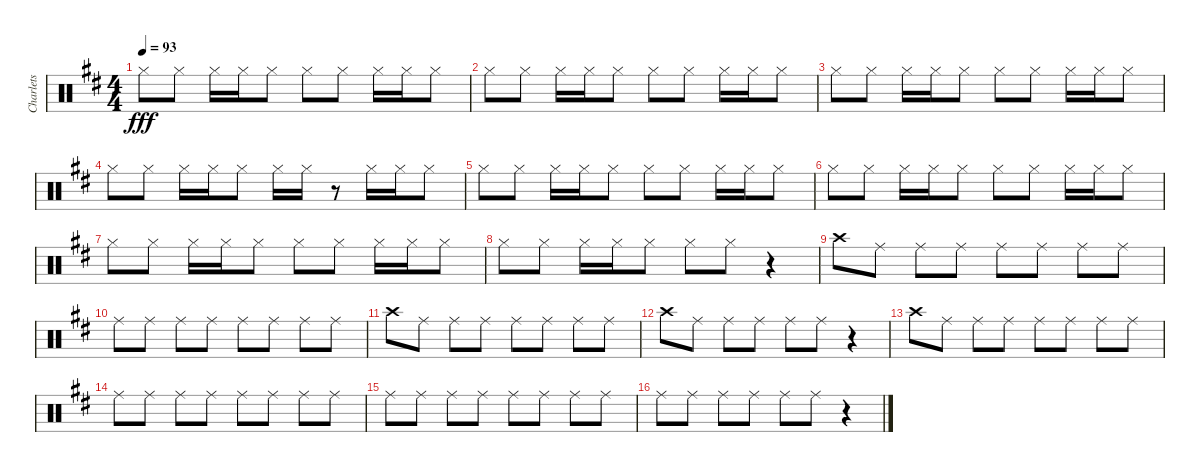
\track ("Charlets" "Charlets") {instrument percussion}
\staff {score}
\articulation defaults
\ts (4 4)
\tempo 93
\clef neutral
\ks d "Hi-Hat (closed)".8{dy fff} "Hi-Hat (closed)".8 "Hi-Hat (closed)".16 "Hi-Hat (closed)".16 "Hi-Hat (closed)".8 "Hi-Hat (closed)".8 "Hi-Hat (closed)".8 "Hi-Hat (closed)".16 "Hi-Hat (closed)".16 "Hi-Hat (closed)".8
|
"Hi-Hat (closed)".8 "Hi-Hat (closed)".8 "Hi-Hat (closed)".16 "Hi-Hat (closed)".16 "Hi-Hat (closed)".8 "Hi-Hat (closed)".8 "Hi-Hat (closed)".8 "Hi-Hat (closed)".16 "Hi-Hat (closed)".16 "Hi-Hat (closed)".8 |
"Hi-Hat (closed)".8 "Hi-Hat (closed)".8 "Hi-Hat (closed)".16 "Hi-Hat (closed)".16 "Hi-Hat (closed)".8 "Hi-Hat (closed)".8 "Hi-Hat (closed)".8 "Hi-Hat (closed)".16 "Hi-Hat (closed)".16 "Hi-Hat (closed)".8 |
"Hi-Hat (closed)".8 "Hi-Hat (closed)".8 "Hi-Hat (closed)".16 "Hi-Hat (closed)".16 "Hi-Hat (closed)".8 "Hi-Hat (closed)".16 "Hi-Hat (closed)".16 r.8 "Hi-Hat (closed)".16 "Hi-Hat (closed)".16 "Hi-Hat (closed)".8 |
"Hi-Hat (closed)".8 "Hi-Hat (closed)".8 "Hi-Hat (closed)".16 "Hi-Hat (closed)".16 "Hi-Hat (closed)".8 "Hi-Hat (closed)".8 "Hi-Hat (closed)".8 "Hi-Hat (closed)".16 "Hi-Hat (closed)".16 "Hi-Hat (closed)".8 |
"Hi-Hat (closed)".8 "Hi-Hat (closed)".8 "Hi-Hat (closed)".16 "Hi-Hat (closed)".16 "Hi-Hat (closed)".8 "Hi-Hat (closed)".8 "Hi-Hat (closed)".8 "Hi-Hat (closed)".16 "Hi-Hat (closed)".16 "Hi-Hat (closed)".8 |
"Hi-Hat (closed)".8 "Hi-Hat (closed)".8 "Hi-Hat (closed)".16 "Hi-Hat (closed)".16 "Hi-Hat (closed)".8 "Hi-Hat (closed)".8 "Hi-Hat (closed)".8 "Hi-Hat (closed)".16 "Hi-Hat (closed)".16 "Hi-Hat (closed)".8 |
"Hi-Hat (closed)".8 "Hi-Hat (closed)".8 "Hi-Hat (closed)".16 "Hi-Hat (closed)".16 "Hi-Hat (closed)".8 "Hi-Hat (closed)".8 "Hi-Hat (closed)".8 r.4 |
"Crash high (hit)".8 "Ride (middle)".8 "Ride (middle)".8 "Ride (middle)".8 "Ride (middle)".8 "Ride (middle)".8 "Ride (middle)".8 "Ride (middle)".8 |
"Ride (middle)".8 "Ride (middle)".8 "Ride (middle)".8 "Ride (middle)".8 "Ride (middle)".8 "Ride (middle)".8 "Ride (middle)".8 "Ride (middle)".8 |
"Crash high (hit)".8 "Ride (middle)".8 "Ride (middle)".8 "Ride (middle)".8 "Ride (middle)".8 "Ride (middle)".8 "Ride (middle)".8 "Ride (middle)".8 |
"Crash high (hit)".8 "Ride (middle)".8 "Ride (middle)".8 "Ride (middle)".8 "Ride (middle)".8 "Ride (middle)".8 r.4 |
"Crash high (hit)".8 "Ride (middle)".8 "Ride (middle)".8 "Ride (middle)".8 "Ride (middle)".8 "Ride (middle)".8 "Ride (middle)".8 "Ride (middle)".8 |
"Ride (middle)".8 "Ride (middle)".8 "Ride (middle)".8 "Ride (middle)".8 "Ride (middle)".8 "Ride (middle)".8 "Ride (middle)".8 "Ride (middle)".8 |
"Ride (middle)".8 "Ride (middle)".8 "Ride (middle)".8 "Ride (middle)".8 "Ride (middle)".8 "Ride (middle)".8 "Ride (middle)".8 "Ride (middle)".8 |
"Ride (middle)".8 "Ride (middle)".8 "Ride (middle)".8 "Ride (middle)".8 "Ride (middle)".8 "Ride (middle)".8 r.4
